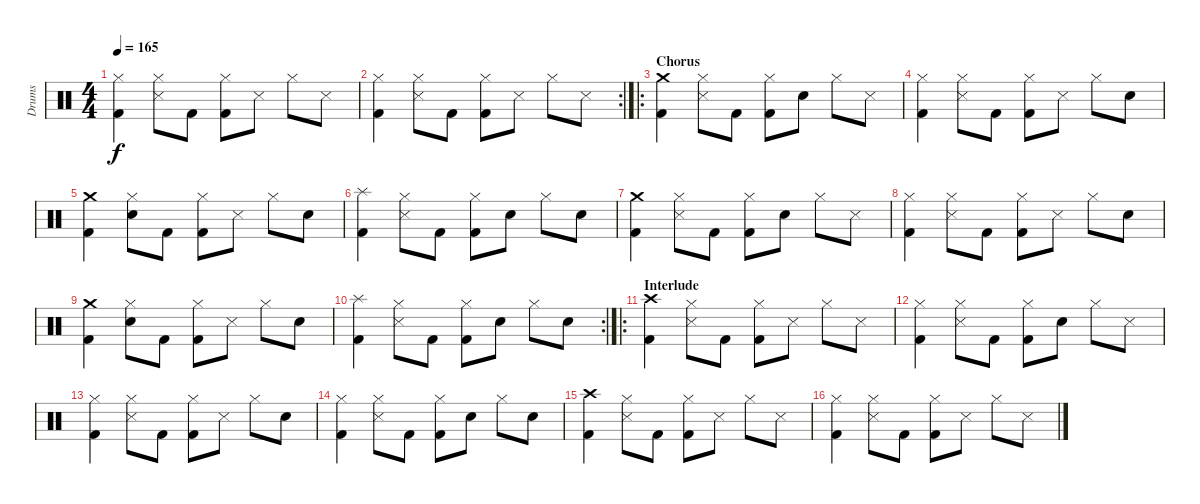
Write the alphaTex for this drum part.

\track ("Drums" "Drums") {instrument percussion}
\staff {score}
\articulation defaults
\ts (4 4)
\tempo 165
\clef neutral
\ks c
("Kick (hit) 2" "Hi-Hat (closed)").4{dy f} ("Snare (side stick) 3" "Hi-Hat (closed)").8 "Kick (hit) 2".8 ("Kick (hit) 2" "Hi-Hat (closed)").8 "Snare (side stick) 3".8 "Hi-Hat (closed)".8 "Snare (side stick) 3".8 |
\rc 2
("Kick (hit) 2" "Hi-Hat (closed)").4 ("Snare (side stick) 3" "Hi-Hat (closed)").8 "Kick (hit) 2".8 ("Kick (hit) 2" "Hi-Hat (closed)").8 "Snare (side stick) 3".8 "Hi-Hat (closed)".8 "Snare (side stick) 3".8 |
\ro
\section ("" "Chorus")
("Kick (hit) 2" "Crash medium (hit)").4 ("Snare (side stick) 3" "Hi-Hat (closed)").8 "Kick (hit) 2".8 ("Kick (hit) 2" "Hi-Hat (closed)").8 "Snare (hit) 2".8 "Hi-Hat (closed)".8 "Snare (side stick) 3".8 |
("Kick (hit) 2" "Hi-Hat (closed)").4 ("Snare (side stick) 3" "Hi-Hat (closed)").8 "Kick (hit) 2".8 ("Kick (hit) 2" "Hi-Hat (closed)").8 "Snare (side stick) 3".8 "Hi-Hat (closed)".8 "Snare (hit) 2".8 |
("Kick (hit) 2" "Crash medium (hit)").4 ("Snare (hit) 2" "Hi-Hat (closed)").8 "Kick (hit) 2".8 ("Kick (hit) 2" "Hi-Hat (closed)").8 "Snare (side stick) 3".8 "Hi-Hat (closed)".8 "Snare (hit) 2".8 |
("Kick (hit) 2" "Splash (hit)").4 ("Snare (side stick) 3" "Hi-Hat (closed)").8 "Kick (hit) 2".8 ("Kick (hit) 2" "Hi-Hat (closed)").8 "Snare (hit) 2".8 "Hi-Hat (closed)".8 "Snare (hit) 2".8 |
("Kick (hit) 2" "Crash medium (hit)").4 ("Snare (side stick) 3" "Hi-Hat (closed)").8 "Kick (hit) 2".8 ("Kick (hit) 2" "Hi-Hat (closed)").8 "Snare (hit) 2".8 "Hi-Hat (closed)".8 "Snare (side stick) 3".8 |
("Kick (hit) 2" "Hi-Hat (closed)").4 ("Snare (side stick) 3" "Hi-Hat (closed)").8 "Kick (hit) 2".8 ("Kick (hit) 2" "Hi-Hat (closed)").8 "Snare (side stick) 3".8 "Hi-Hat (closed)".8 "Snare (hit) 2".8 |
("Kick (hit) 2" "Crash medium (hit)").4 ("Snare (hit) 2" "Hi-Hat (closed)").8 "Kick (hit) 2".8 ("Kick (hit) 2" "Hi-Hat (closed)").8 "Snare (side stick) 3".8 "Hi-Hat (closed)".8 "Snare (hit) 2".8 |
\rc 2
("Kick (hit) 2" "Splash (hit)").4 ("Snare (side stick) 3" "Hi-Hat (closed)").8 "Kick (hit) 2".8 ("Kick (hit) 2" "Hi-Hat (closed)").8 "Snare (hit) 2".8 "Hi-Hat (closed)".8 "Snare (hit) 2".8 |
\ro
\section ("" "Interlude")
("Kick (hit) 2" "Crash high (hit)").4 ("Snare (side stick) 3" "Hi-Hat (closed)").8 "Kick (hit) 2".8 ("Kick (hit) 2" "Hi-Hat (closed)").8 "Snare (side stick) 3".8 "Hi-Hat (closed)".8 "Snare (side stick) 3".8 |
("Kick (hit) 2" "Hi-Hat (closed)").4 ("Snare (side stick) 3" "Hi-Hat (closed)").8 "Kick (hit) 2".8 ("Kick (hit) 2" "Hi-Hat (closed)").8 "Snare (hit) 2".8 "Hi-Hat (closed)".8 "Snare (side stick) 3".8 |
("Kick (hit) 2" "Hi-Hat (closed)").4 ("Snare (side stick) 3" "Hi-Hat (closed)").8 "Kick (hit) 2".8 ("Kick (hit) 2" "Hi-Hat (closed)").8 "Snare (side stick) 3".8 "Hi-Hat (closed)".8 "Snare (hit) 2".8 |
("Kick (hit) 2" "Hi-Hat (closed)").4 ("Snare (side stick) 3" "Hi-Hat (closed)").8 "Kick (hit) 2".8 ("Kick (hit) 2" "Hi-Hat (closed)").8 "Snare (hit) 2".8 "Hi-Hat (closed)".8 "Snare (hit) 2".8 |
("Kick (hit) 2" "Crash high (hit)").4 ("Snare (side stick) 3" "Hi-Hat (closed)").8 "Kick (hit) 2".8 ("Kick (hit) 2" "Hi-Hat (closed)").8 "Snare (side stick) 3".8 "Hi-Hat (closed)".8 "Snare (side stick) 3".8 |
("Kick (hit) 2" "Hi-Hat (closed)").4 ("Snare (side stick) 3" "Hi-Hat (closed)").8 "Kick (hit) 2".8 ("Kick (hit) 2" "Hi-Hat (closed)").8 "Snare (side stick) 3".8 "Hi-Hat (closed)".8 "Snare (side stick) 3".8
